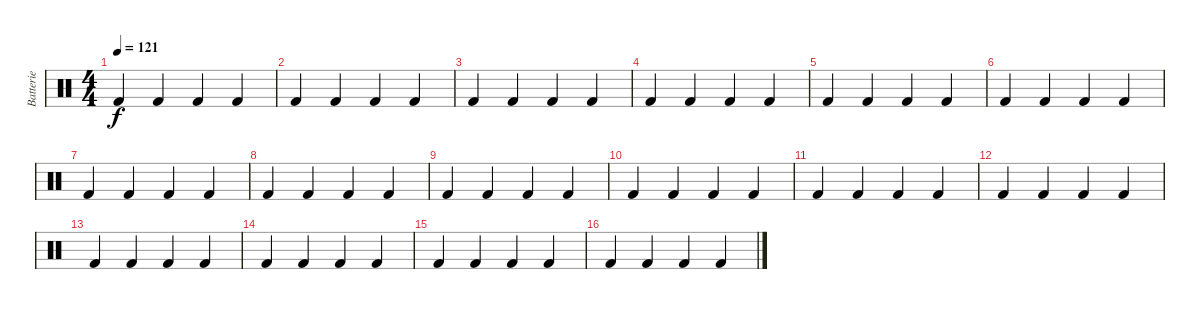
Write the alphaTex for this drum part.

\track ("Batterie" "Batterie") {instrument percussion}
\staff {score}
\articulation defaults
\ts (4 4)
\tempo 121
\clef neutral
\ks c "Kick (hit) 2".4{dy f} "Kick (hit) 2".4 "Kick (hit) 2".4 "Kick (hit) 2".4
|
"Kick (hit) 2".4 "Kick (hit) 2".4 "Kick (hit) 2".4 "Kick (hit) 2".4 |
"Kick (hit) 2".4 "Kick (hit) 2".4 "Kick (hit) 2".4 "Kick (hit) 2".4 |
"Kick (hit) 2".4 "Kick (hit) 2".4 "Kick (hit) 2".4 "Kick (hit) 2".4 |
"Kick (hit) 2".4 "Kick (hit) 2".4 "Kick (hit) 2".4 "Kick (hit) 2".4 |
"Kick (hit) 2".4 "Kick (hit) 2".4 "Kick (hit) 2".4 "Kick (hit) 2".4 |
"Kick (hit) 2".4 "Kick (hit) 2".4 "Kick (hit) 2".4 "Kick (hit) 2".4 |
"Kick (hit) 2".4 "Kick (hit) 2".4 "Kick (hit) 2".4 "Kick (hit) 2".4 |
"Kick (hit) 2".4 "Kick (hit) 2".4 "Kick (hit) 2".4 "Kick (hit) 2".4 |
"Kick (hit) 2".4 "Kick (hit) 2".4 "Kick (hit) 2".4 "Kick (hit) 2".4 |
"Kick (hit) 2".4 "Kick (hit) 2".4 "Kick (hit) 2".4 "Kick (hit) 2".4 |
"Kick (hit) 2".4 "Kick (hit) 2".4 "Kick (hit) 2".4 "Kick (hit) 2".4 |
"Kick (hit) 2".4 "Kick (hit) 2".4 "Kick (hit) 2".4 "Kick (hit) 2".4 |
"Kick (hit) 2".4 "Kick (hit) 2".4 "Kick (hit) 2".4 "Kick (hit) 2".4 |
"Kick (hit) 2".4 "Kick (hit) 2".4 "Kick (hit) 2".4 "Kick (hit) 2".4 |
"Kick (hit) 2".4 "Kick (hit) 2".4 "Kick (hit) 2".4 "Kick (hit) 2".4
